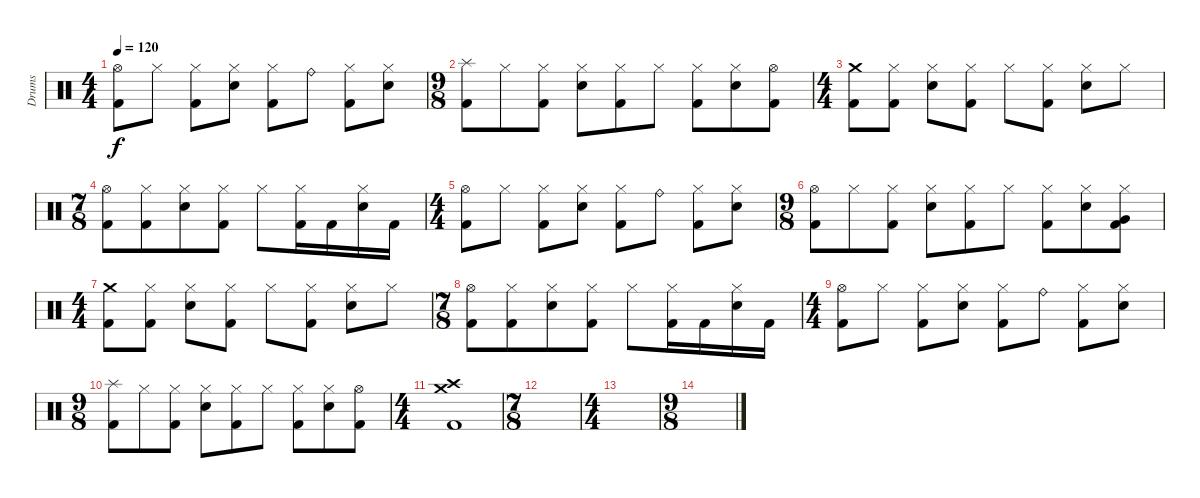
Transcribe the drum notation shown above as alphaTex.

\track ("Drums" "Drums") {instrument percussion}
\staff {score}
\articulation defaults
\ts (4 4)
\tempo 120
\clef neutral
\ks c
("Hi-Hat (open)" "Kick (hit) 2").8{dy f} "Hi-Hat (closed)".8 ("Hi-Hat (closed)" "Kick (hit) 2").8 ("Hi-Hat (closed)" "Electric Snare (hit)").8 ("Hi-Hat (closed)" "Kick (hit) 2").8 "Ride (bell)".8 ("Hi-Hat (closed)" "Kick (hit) 2").8 ("Hi-Hat (closed)" "Electric Snare (hit)").8 |
\ts (9 8)
("Splash (hit)" "Kick (hit) 2").8 "Hi-Hat (closed)".8 ("Hi-Hat (closed)" "Kick (hit) 2").8 ("Hi-Hat (closed)" "Electric Snare (hit)").8 ("Hi-Hat (closed)" "Kick (hit) 2").8 "Hi-Hat (closed)".8 ("Hi-Hat (closed)" "Kick (hit) 2").8 ("Hi-Hat (closed)" "Electric Snare (hit)").8 ("Hi-Hat (open)" "Kick (hit) 2").8 |
\ts (4 4)
("Crash medium (hit)" "Kick (hit) 2").8 ("Hi-Hat (closed)" "Kick (hit) 2").8 ("Hi-Hat (closed)" "Electric Snare (hit)").8 ("Hi-Hat (closed)" "Kick (hit) 2").8 "Hi-Hat (closed)".8 ("Hi-Hat (closed)" "Kick (hit) 2").8 ("Hi-Hat (closed)" "Electric Snare (hit)").8 "Hi-Hat (closed)".8 |
\ts (7 8)
("Hi-Hat (open)" "Kick (hit) 2").8 ("Hi-Hat (closed)" "Kick (hit) 2").8 ("Hi-Hat (closed)" "Electric Snare (hit)").8 ("Hi-Hat (closed)" "Kick (hit) 2").8 "Hi-Hat (closed)".8 ("Hi-Hat (closed)" "Kick (hit) 2").16 "Kick (hit) 2".16 ("Hi-Hat (closed)" "Electric Snare (hit)").16 "Kick (hit) 2".16 |
\ts (4 4)
("Hi-Hat (open)" "Kick (hit) 2").8 "Hi-Hat (closed)".8 ("Hi-Hat (closed)" "Kick (hit) 2").8 ("Hi-Hat (closed)" "Electric Snare (hit)").8 ("Hi-Hat (closed)" "Kick (hit) 2").8 "Ride (bell)".8 ("Hi-Hat (closed)" "Kick (hit) 2").8 ("Hi-Hat (closed)" "Electric Snare (hit)").8 |
\ts (9 8)
("Hi-Hat (open)" "Kick (hit) 2").8 "Hi-Hat (closed)".8 ("Hi-Hat (closed)" "Kick (hit) 2").8 ("Hi-Hat (closed)" "Electric Snare (hit)").8 ("Hi-Hat (closed)" "Kick (hit) 2").8 "Hi-Hat (closed)".8 ("Hi-Hat (closed)" "Kick (hit) 2").8 ("Hi-Hat (closed)" "Electric Snare (hit)").8 ("Hi-Hat (closed)" "Very Low Tom (hit)" "Kick (hit) 2").8 |
\ts (4 4)
("Crash medium (hit)" "Kick (hit) 2").8 ("Hi-Hat (closed)" "Kick (hit) 2").8 ("Hi-Hat (closed)" "Electric Snare (hit)").8 ("Hi-Hat (closed)" "Kick (hit) 2").8 "Hi-Hat (closed)".8 ("Hi-Hat (closed)" "Kick (hit) 2").8 ("Hi-Hat (closed)" "Electric Snare (hit)").8 "Hi-Hat (closed)".8 |
\ts (7 8)
("Hi-Hat (open)" "Kick (hit) 2").8 ("Hi-Hat (closed)" "Kick (hit) 2").8 ("Hi-Hat (closed)" "Electric Snare (hit)").8 ("Hi-Hat (closed)" "Kick (hit) 2").8 "Hi-Hat (closed)".8 ("Hi-Hat (closed)" "Kick (hit) 2").16 "Kick (hit) 2".16 ("Hi-Hat (closed)" "Electric Snare (hit)").16 "Kick (hit) 2".16 |
\ts (4 4)
("Hi-Hat (open)" "Kick (hit) 2").8 "Hi-Hat (closed)".8 ("Hi-Hat (closed)" "Kick (hit) 2").8 ("Hi-Hat (closed)" "Electric Snare (hit)").8 ("Hi-Hat (closed)" "Kick (hit) 2").8 "Ride (bell)".8 ("Hi-Hat (closed)" "Kick (hit) 2").8 ("Hi-Hat (closed)" "Electric Snare (hit)").8 |
\ts (9 8)
("Splash (hit)" "Kick (hit) 2").8 "Hi-Hat (closed)".8 ("Hi-Hat (closed)" "Kick (hit) 2").8 ("Hi-Hat (closed)" "Electric Snare (hit)").8 ("Hi-Hat (closed)" "Kick (hit) 2").8 "Hi-Hat (closed)".8 ("Hi-Hat (closed)" "Kick (hit) 2").8 ("Hi-Hat (closed)" "Electric Snare (hit)").8 ("Hi-Hat (open)" "Kick (hit) 2").8 |
\ts (4 4)
("Crash medium (hit)" "Crash high (hit)" "Kick (hit) 2").1 |
\ts (7 8)
|
\ts (4 4)
|
\ts (9 8)
